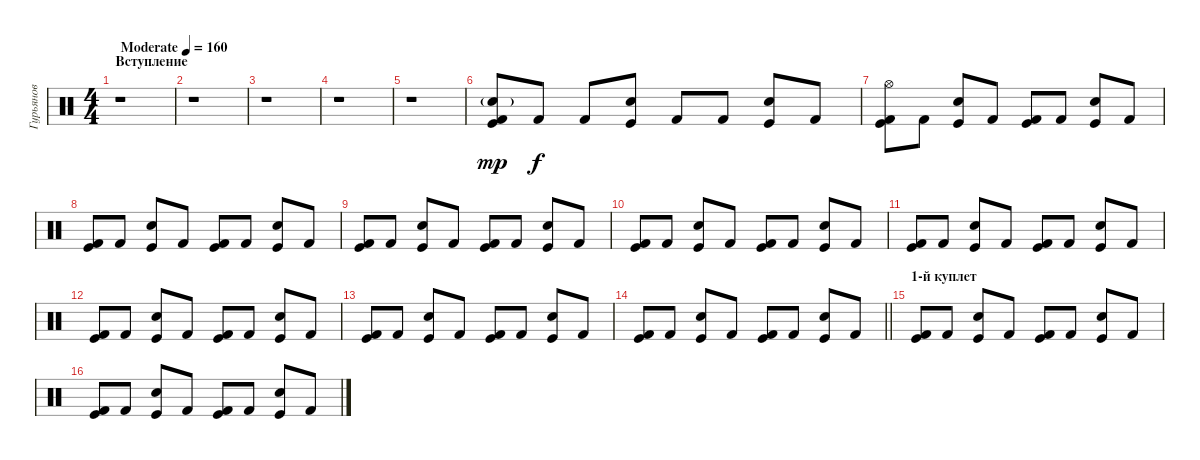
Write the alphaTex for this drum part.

\track ("Гурьянов" "Гурьянов") {instrument percussion}
\staff {score}
\articulation defaults
\ts (4 4)
\section ("" "Вступление")
\tempo (160 "Moderate")
\clef neutral
\ks c
r.1{dy mp} |
r.1 |
r.1 |
r.1 |
r.1 |
("Snare (hit) 2"{g} "Kick (hit)" "Kick (hit) 2").8 "Kick (hit) 2".8{dy f} "Kick (hit) 2".8 ("Snare (hit) 2" "Kick (hit)").8 "Kick (hit) 2".8 "Kick (hit) 2".8 ("Snare (hit) 2" "Kick (hit)").8 "Kick (hit) 2".8 |
("Hi-Hat (open)" "Kick (hit)" "Kick (hit) 2").8 "Kick (hit) 2".8 ("Snare (hit) 2" "Kick (hit)").8 "Kick (hit) 2".8 ("Kick (hit)" "Kick (hit) 2").8 "Kick (hit) 2".8 ("Snare (hit) 2" "Kick (hit)").8 "Kick (hit) 2".8 |
("Kick (hit)" "Kick (hit) 2").8 "Kick (hit) 2".8 ("Snare (hit) 2" "Kick (hit)").8 "Kick (hit) 2".8 ("Kick (hit)" "Kick (hit) 2").8 "Kick (hit) 2".8 ("Snare (hit) 2" "Kick (hit)").8 "Kick (hit) 2".8 |
("Kick (hit)" "Kick (hit) 2").8 "Kick (hit) 2".8 ("Snare (hit) 2" "Kick (hit)").8 "Kick (hit) 2".8 ("Kick (hit)" "Kick (hit) 2").8 "Kick (hit) 2".8 ("Snare (hit) 2" "Kick (hit)").8 "Kick (hit) 2".8 |
("Kick (hit)" "Kick (hit) 2").8 "Kick (hit) 2".8 ("Snare (hit) 2" "Kick (hit)").8 "Kick (hit) 2".8 ("Kick (hit)" "Kick (hit) 2").8 "Kick (hit) 2".8 ("Snare (hit) 2" "Kick (hit)").8 "Kick (hit) 2".8 |
("Kick (hit)" "Kick (hit) 2").8 "Kick (hit) 2".8 ("Snare (hit) 2" "Kick (hit)").8 "Kick (hit) 2".8 ("Kick (hit)" "Kick (hit) 2").8 "Kick (hit) 2".8 ("Snare (hit) 2" "Kick (hit)").8 "Kick (hit) 2".8 |
("Kick (hit)" "Kick (hit) 2").8 "Kick (hit) 2".8 ("Snare (hit) 2" "Kick (hit)").8 "Kick (hit) 2".8 ("Kick (hit)" "Kick (hit) 2").8 "Kick (hit) 2".8 ("Snare (hit) 2" "Kick (hit)").8 "Kick (hit) 2".8 |
("Kick (hit)" "Kick (hit) 2").8 "Kick (hit) 2".8 ("Snare (hit) 2" "Kick (hit)").8 "Kick (hit) 2".8 ("Kick (hit)" "Kick (hit) 2").8 "Kick (hit) 2".8 ("Snare (hit) 2" "Kick (hit)").8 "Kick (hit) 2".8 |
\barLineRight lightlight
("Kick (hit)" "Kick (hit) 2").8 "Kick (hit) 2".8 ("Snare (hit) 2" "Kick (hit)").8 "Kick (hit) 2".8 ("Kick (hit)" "Kick (hit) 2").8 "Kick (hit) 2".8 ("Snare (hit) 2" "Kick (hit)").8 "Kick (hit) 2".8 |
\section ("" "1-й куплет")
("Kick (hit)" "Kick (hit) 2").8 "Kick (hit) 2".8 ("Snare (hit) 2" "Kick (hit)").8 "Kick (hit) 2".8 ("Kick (hit)" "Kick (hit) 2").8 "Kick (hit) 2".8 ("Snare (hit) 2" "Kick (hit)").8 "Kick (hit) 2".8 |
("Kick (hit)" "Kick (hit) 2").8 "Kick (hit) 2".8 ("Snare (hit) 2" "Kick (hit)").8 "Kick (hit) 2".8 ("Kick (hit)" "Kick (hit) 2").8 "Kick (hit) 2".8 ("Snare (hit) 2" "Kick (hit)").8 "Kick (hit) 2".8
